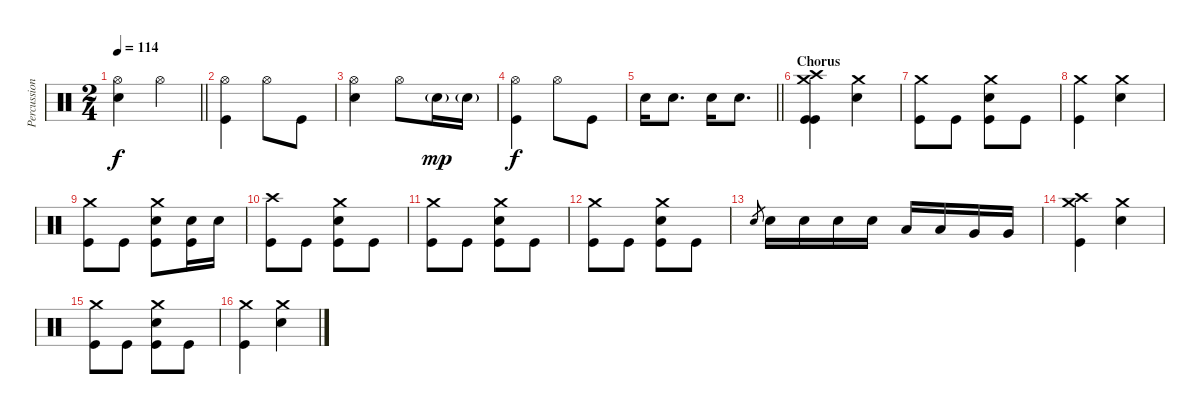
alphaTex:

\track ("Percussion" "Percussion") {instrument percussion}
\staff {score}
\articulation defaults
\ts (2 4)
\tempo 114
\clef neutral
\barLineRight lightlight
\ks c
("Hi-Hat (open)" "Electric Snare (hit)").4{dy f} "Hi-Hat (open)".4 |
\section ("" "")
("Hi-Hat (open)" "Kick (hit)").4 "Hi-Hat (open)".8 "Kick (hit)".8 |
("Hi-Hat (open)" "Electric Snare (hit)").4 "Hi-Hat (open)".8 "Electric Snare (hit)"{g}.16{dy mp} "Electric Snare (hit)"{g}.16 |
("Hi-Hat (open)" "Kick (hit)").4{dy f} "Hi-Hat (open)".8 "Kick (hit)".8 |
\barLineRight lightlight "Electric Snare (hit)".16 "Electric Snare (hit)".8{d} "Electric Snare (hit)".16 "Electric Snare (hit)".8{d}
|
\section ("" "Chorus")
("Crash high (hit)" "Crash medium (hit)" "Kick (hit)" "Kick (hit)").4 ("Crash medium (hit)" "Electric Snare (hit)").4 |
("Crash medium (hit)" "Kick (hit)").8 "Kick (hit)".8 ("Crash medium (hit)" "Electric Snare (hit)" "Kick (hit)").8 "Kick (hit)".8 |
("Crash medium (hit)" "Kick (hit)").4 ("Crash medium (hit)" "Electric Snare (hit)").4 |
("Crash medium (hit)" "Kick (hit)").8 "Kick (hit)".8 ("Crash medium (hit)" "Electric Snare (hit)" "Kick (hit)").8 ("Electric Snare (hit)" "Kick (hit)").16 "Electric Snare (hit)".16 |
("Crash high (hit)" "Kick (hit)").8 "Kick (hit)".8 ("Crash medium (hit)" "Electric Snare (hit)" "Kick (hit)").8 "Kick (hit)".8 |
("Crash medium (hit)" "Kick (hit)").8 "Kick (hit)".8 ("Crash medium (hit)" "Electric Snare (hit)" "Kick (hit)").8 "Kick (hit)".8 |
("Crash medium (hit)" "Kick (hit)").8 "Kick (hit)".8 ("Crash medium (hit)" "Electric Snare (hit)" "Kick (hit)").8 "Kick (hit)".8 |
"Electric Snare (hit)".8{gr} "Electric Snare (hit)".16 "Electric Snare (hit)".16 "Electric Snare (hit)".16 "Electric Snare (hit)".16 "Low Tom (hit)".16 "Low Tom (hit)".16 "Very Low Tom (hit)".16 "Very Low Tom (hit)".16 |
("Crash high (hit)" "Crash medium (hit)" "Kick (hit)").4 ("Crash medium (hit)" "Electric Snare (hit)").4 |
("Crash medium (hit)" "Kick (hit)").8 "Kick (hit)".8 ("Crash medium (hit)" "Electric Snare (hit)" "Kick (hit)").8 "Kick (hit)".8 |
("Crash medium (hit)" "Kick (hit)").4 ("Crash medium (hit)" "Electric Snare (hit)").4
